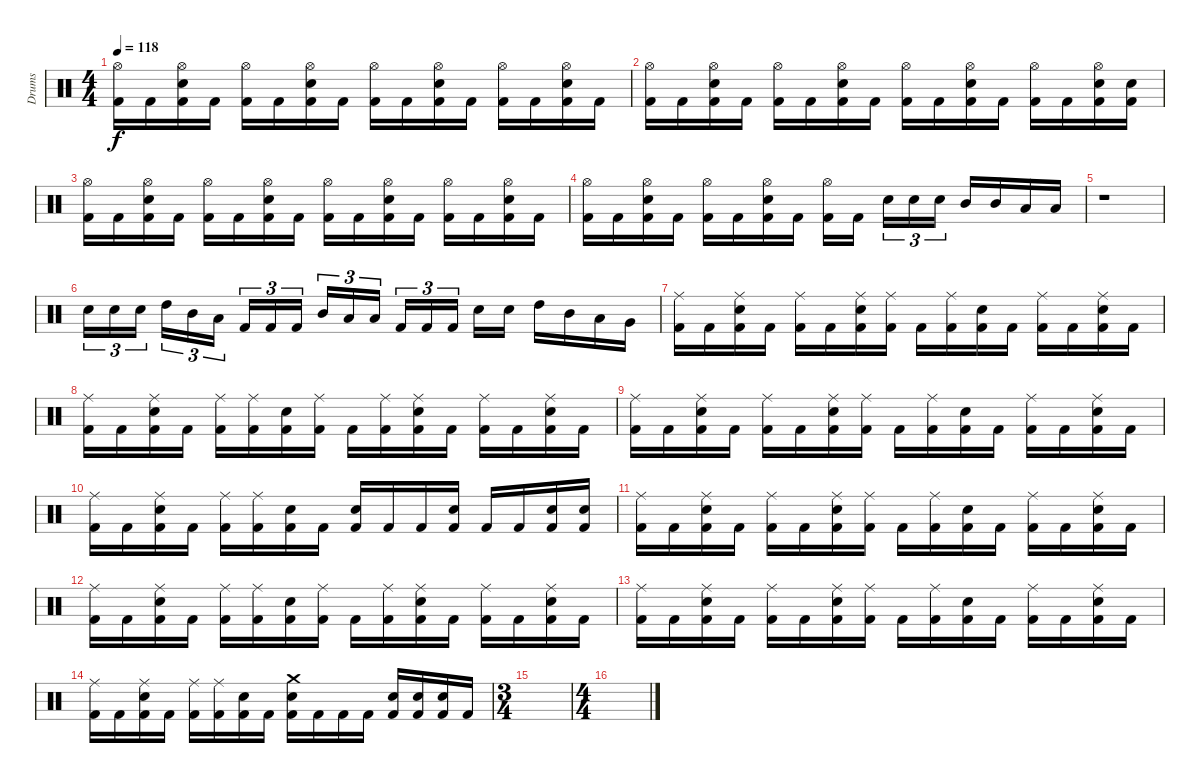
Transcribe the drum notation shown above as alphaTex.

\track ("Drums" "Drums") {instrument percussion}
\staff {score}
\articulation defaults
\ts (4 4)
\tempo 118
\clef neutral
\ks c
("Hi-Hat (open)" "Kick (hit) 2").16{dy f} "Kick (hit) 2".16 ("Hi-Hat (open)" "Snare (hit) 2" "Kick (hit) 2").16 "Kick (hit) 2".16 ("Hi-Hat (open)" "Kick (hit) 2").16 "Kick (hit) 2".16 ("Hi-Hat (open)" "Snare (hit) 2" "Kick (hit) 2").16 "Kick (hit) 2".16 ("Hi-Hat (open)" "Kick (hit) 2").16 "Kick (hit) 2".16 ("Hi-Hat (open)" "Snare (hit) 2" "Kick (hit) 2").16 "Kick (hit) 2".16 ("Hi-Hat (open)" "Kick (hit) 2").16 "Kick (hit) 2".16 ("Hi-Hat (open)" "Snare (hit) 2" "Kick (hit) 2").16 "Kick (hit) 2".16 |
("Hi-Hat (open)" "Kick (hit) 2").16 "Kick (hit) 2".16 ("Hi-Hat (open)" "Snare (hit) 2" "Kick (hit) 2").16 "Kick (hit) 2".16 ("Hi-Hat (open)" "Kick (hit) 2").16 "Kick (hit) 2".16 ("Hi-Hat (open)" "Snare (hit) 2" "Kick (hit) 2").16 "Kick (hit) 2".16 ("Hi-Hat (open)" "Kick (hit) 2").16 "Kick (hit) 2".16 ("Hi-Hat (open)" "Snare (hit) 2" "Kick (hit) 2").16 "Kick (hit) 2".16 ("Hi-Hat (open)" "Kick (hit) 2").16 "Kick (hit) 2".16 ("Hi-Hat (open)" "Snare (hit) 2" "Kick (hit) 2").16 ("Snare (hit) 2" "Kick (hit) 2").16 |
("Hi-Hat (open)" "Kick (hit) 2").16 "Kick (hit) 2".16 ("Hi-Hat (open)" "Snare (hit) 2" "Kick (hit) 2").16 "Kick (hit) 2".16 ("Hi-Hat (open)" "Kick (hit) 2").16 "Kick (hit) 2".16 ("Hi-Hat (open)" "Snare (hit) 2" "Kick (hit) 2").16 "Kick (hit) 2".16 ("Hi-Hat (open)" "Kick (hit) 2").16 "Kick (hit) 2".16 ("Hi-Hat (open)" "Snare (hit) 2" "Kick (hit) 2").16 "Kick (hit) 2".16 ("Hi-Hat (open)" "Kick (hit) 2").16 "Kick (hit) 2".16 ("Hi-Hat (open)" "Snare (hit) 2" "Kick (hit) 2").16 "Kick (hit) 2".16 |
("Hi-Hat (open)" "Kick (hit) 2").16 "Kick (hit) 2".16 ("Hi-Hat (open)" "Snare (hit) 2" "Kick (hit) 2").16 "Kick (hit) 2".16 ("Hi-Hat (open)" "Kick (hit) 2").16 "Kick (hit) 2".16 ("Hi-Hat (open)" "Snare (hit) 2" "Kick (hit) 2").16 "Kick (hit) 2".16 ("Hi-Hat (open)" "Kick (hit) 2").16 "Kick (hit) 2".16 "Snare (hit) 2".16{tu (3 2)} "Snare (hit) 2".16{tu (3 2)} "Snare (hit) 2".16{tu (3 2)} "Mid Tom (hit)".16 "Mid Tom (hit)".16 "Low Tom (hit)".16 "Low Tom (hit)".16 |
r.1 |
"Snare (hit) 2".16{tu (3 2)} "Snare (hit) 2".16{tu (3 2)} "Snare (hit) 2".16{tu (3 2)} "High Tom (hit)".16{tu (3 2)} "Mid Tom (hit)".16{tu (3 2)} "Low Tom (hit)".16{tu (3 2)} "Kick (hit) 2".16{tu (3 2)} "Kick (hit) 2".16{tu (3 2)} "Kick (hit) 2".16{tu (3 2)} "Mid Tom (hit)".16{tu (3 2)} "Low Tom (hit)".16{tu (3 2)} "Low Tom (hit)".16{tu (3 2)} "Kick (hit) 2".16{tu (3 2)} "Kick (hit) 2".16{tu (3 2)} "Kick (hit) 2".16{tu (3 2)} "Snare (hit) 2".16 "Snare (hit) 2".16 "High Tom (hit)".16 "Mid Tom (hit)".16 "Low Tom (hit)".16 "Very Low Tom (hit)".16 |
("Ride (middle)" "Kick (hit) 2").16 "Kick (hit) 2".16 ("Ride (middle)" "Snare (hit) 2" "Kick (hit) 2").16 "Kick (hit) 2".16 ("Ride (middle)" "Kick (hit) 2").16 "Kick (hit) 2".16 ("Ride (middle)" "Snare (hit) 2" "Kick (hit) 2").16 ("Ride (middle)" "Kick (hit) 2").16 "Kick (hit) 2".16 ("Ride (middle)" "Kick (hit) 2").16 ("Snare (hit) 2" "Kick (hit) 2").16 "Kick (hit) 2".16 ("Ride (middle)" "Kick (hit) 2").16 "Kick (hit) 2".16 ("Ride (middle)" "Snare (hit) 2" "Kick (hit) 2").16 "Kick (hit) 2".16 |
("Ride (middle)" "Kick (hit) 2").16 "Kick (hit) 2".16 ("Ride (middle)" "Snare (hit) 2" "Kick (hit) 2").16 "Kick (hit) 2".16 ("Ride (middle)" "Kick (hit) 2").16 ("Ride (middle)" "Kick (hit) 2").16 ("Snare (hit) 2" "Kick (hit) 2").16 ("Ride (middle)" "Kick (hit) 2").16 "Kick (hit) 2".16 ("Ride (middle)" "Kick (hit) 2").16 ("Ride (middle)" "Snare (hit) 2" "Kick (hit) 2").16 "Kick (hit) 2".16 ("Ride (middle)" "Kick (hit) 2").16 "Kick (hit) 2".16 ("Ride (middle)" "Snare (hit) 2" "Kick (hit) 2").16 "Kick (hit) 2".16 |
("Ride (middle)" "Kick (hit) 2").16 "Kick (hit) 2".16 ("Ride (middle)" "Snare (hit) 2" "Kick (hit) 2").16 "Kick (hit) 2".16 ("Ride (middle)" "Kick (hit) 2").16 "Kick (hit) 2".16 ("Ride (middle)" "Snare (hit) 2" "Kick (hit) 2").16 ("Ride (middle)" "Kick (hit) 2").16 "Kick (hit) 2".16 ("Ride (middle)" "Kick (hit) 2").16 ("Snare (hit) 2" "Kick (hit) 2").16 "Kick (hit) 2".16 ("Ride (middle)" "Kick (hit) 2").16 "Kick (hit) 2".16 ("Ride (middle)" "Snare (hit) 2" "Kick (hit) 2").16 "Kick (hit) 2".16 |
("Ride (middle)" "Kick (hit) 2").16 "Kick (hit) 2".16 ("Ride (middle)" "Snare (hit) 2" "Kick (hit) 2").16 "Kick (hit) 2".16 ("Ride (middle)" "Kick (hit) 2").16 ("Ride (middle)" "Kick (hit) 2").16 ("Snare (hit) 2" "Kick (hit) 2").16 "Kick (hit) 2".16 ("Snare (hit) 2" "Kick (hit) 2").16 "Kick (hit) 2".16 "Kick (hit) 2".16 ("Snare (hit) 2" "Kick (hit) 2").16 "Kick (hit) 2".16 "Kick (hit) 2".16 ("Snare (hit) 2" "Kick (hit) 2").16 ("Snare (hit) 2" "Kick (hit) 2").16 |
("Ride (middle)" "Kick (hit) 2").16 "Kick (hit) 2".16 ("Ride (middle)" "Snare (hit) 2" "Kick (hit) 2").16 "Kick (hit) 2".16 ("Ride (middle)" "Kick (hit) 2").16 "Kick (hit) 2".16 ("Ride (middle)" "Snare (hit) 2" "Kick (hit) 2").16 ("Ride (middle)" "Kick (hit) 2").16 "Kick (hit) 2".16 ("Ride (middle)" "Kick (hit) 2").16 ("Snare (hit) 2" "Kick (hit) 2").16 "Kick (hit) 2".16 ("Ride (middle)" "Kick (hit) 2").16 "Kick (hit) 2".16 ("Ride (middle)" "Snare (hit) 2" "Kick (hit) 2").16 "Kick (hit) 2".16 |
("Ride (middle)" "Kick (hit) 2").16 "Kick (hit) 2".16 ("Ride (middle)" "Snare (hit) 2" "Kick (hit) 2").16 "Kick (hit) 2".16 ("Ride (middle)" "Kick (hit) 2").16 ("Ride (middle)" "Kick (hit) 2").16 ("Snare (hit) 2" "Kick (hit) 2").16 ("Ride (middle)" "Kick (hit) 2").16 "Kick (hit) 2".16 ("Ride (middle)" "Kick (hit) 2").16 ("Ride (middle)" "Snare (hit) 2" "Kick (hit) 2").16 "Kick (hit) 2".16 ("Ride (middle)" "Kick (hit) 2").16 "Kick (hit) 2".16 ("Ride (middle)" "Snare (hit) 2" "Kick (hit) 2").16 "Kick (hit) 2".16 |
("Ride (middle)" "Kick (hit) 2").16 "Kick (hit) 2".16 ("Ride (middle)" "Snare (hit) 2" "Kick (hit) 2").16 "Kick (hit) 2".16 ("Ride (middle)" "Kick (hit) 2").16 "Kick (hit) 2".16 ("Ride (middle)" "Snare (hit) 2" "Kick (hit) 2").16 ("Ride (middle)" "Kick (hit) 2").16 "Kick (hit) 2".16 ("Ride (middle)" "Kick (hit) 2").16 ("Snare (hit) 2" "Kick (hit) 2").16 "Kick (hit) 2".16 ("Ride (middle)" "Kick (hit) 2").16 "Kick (hit) 2".16 ("Ride (middle)" "Snare (hit) 2" "Kick (hit) 2").16 "Kick (hit) 2".16 |
("Ride (middle)" "Kick (hit) 2").16 "Kick (hit) 2".16 ("Ride (middle)" "Snare (hit) 2" "Kick (hit) 2").16 "Kick (hit) 2".16 ("Ride (middle)" "Kick (hit) 2").16 ("Ride (middle)" "Kick (hit) 2").16 ("Snare (hit) 2" "Kick (hit) 2").16 "Kick (hit) 2".16 ("Crash medium (hit)" "Snare (hit) 2" "Kick (hit) 2").16 "Kick (hit) 2".16 "Kick (hit) 2".16 "Kick (hit) 2".16 ("Snare (hit) 2" "Kick (hit) 2").16 ("Snare (hit) 2" "Kick (hit) 2").16 ("Snare (hit) 2" "Kick (hit) 2").16 "Kick (hit) 2".16 |
\ts (3 4)
|
\ts (4 4)
